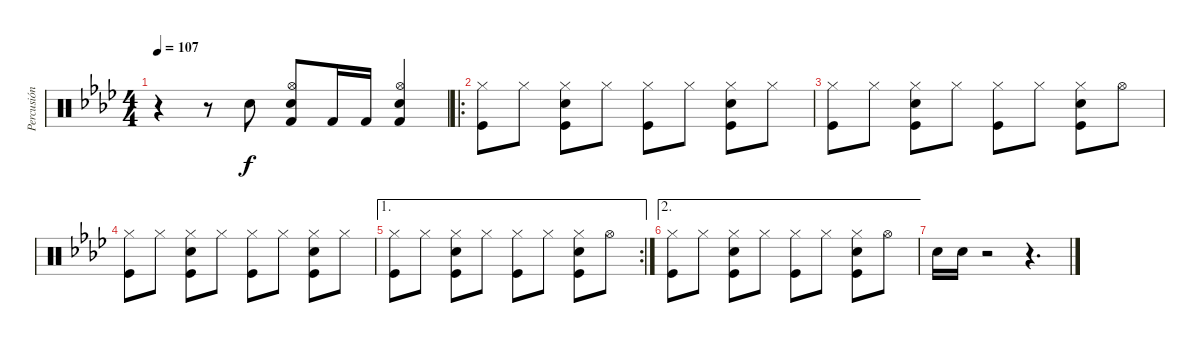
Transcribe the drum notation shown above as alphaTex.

\track ("Percusión" "Percusión") {instrument percussion}
\staff {score}
\articulation defaults
\ts (4 4)
\tempo 107
\clef neutral
\ks ab
r.4{dy f volume 10} r.8 "Snare (hit) 2".8 ("Hi-Hat (open)" "Kick (hit) 2" "Snare (hit) 2").8 "Kick (hit) 2".16 "Kick (hit) 2".16 ("Kick (hit) 2" "Hi-Hat (open)" "Snare (hit) 2").4 |
\ro
("Hi-Hat (closed)" "Kick (hit)").8 "Hi-Hat (closed)".8 ("Hi-Hat (closed)" "Snare (hit) 2" "Kick (hit)").8 "Hi-Hat (closed)".8 ("Hi-Hat (closed)" "Kick (hit)").8 "Hi-Hat (closed)".8 ("Hi-Hat (closed)" "Snare (hit) 2" "Kick (hit)").8 "Hi-Hat (closed)".8 |
("Hi-Hat (closed)" "Kick (hit)").8 "Hi-Hat (closed)".8 ("Hi-Hat (closed)" "Snare (hit) 2" "Kick (hit)").8 "Hi-Hat (closed)".8 ("Hi-Hat (closed)" "Kick (hit)").8 "Hi-Hat (closed)".8 ("Hi-Hat (closed)" "Snare (hit) 2" "Kick (hit)").8 "Hi-Hat (open)".8 |
("Hi-Hat (closed)" "Kick (hit)").8 "Hi-Hat (closed)".8 ("Hi-Hat (closed)" "Snare (hit) 2" "Kick (hit)").8 "Hi-Hat (closed)".8 ("Hi-Hat (closed)" "Kick (hit)").8 "Hi-Hat (closed)".8 ("Hi-Hat (closed)" "Snare (hit) 2" "Kick (hit)").8 "Hi-Hat (closed)".8 |
\ae 1
\rc 2
("Hi-Hat (closed)" "Kick (hit)").8 "Hi-Hat (closed)".8 ("Hi-Hat (closed)" "Snare (hit) 2" "Kick (hit)").8 "Hi-Hat (closed)".8 ("Hi-Hat (closed)" "Kick (hit)").8 "Hi-Hat (closed)".8 ("Hi-Hat (closed)" "Snare (hit) 2" "Kick (hit)").8 "Hi-Hat (open)".8 |
\ae 2
("Hi-Hat (closed)" "Kick (hit)").8 "Hi-Hat (closed)".8 ("Hi-Hat (closed)" "Snare (hit) 2" "Kick (hit)").8 "Hi-Hat (closed)".8 ("Hi-Hat (closed)" "Kick (hit)").8 "Hi-Hat (closed)".8 ("Hi-Hat (closed)" "Snare (hit) 2" "Kick (hit)").8 "Hi-Hat (open)".8 |
"Snare (hit) 2".16 "Snare (hit) 2".16 r.2 r.4{d}
